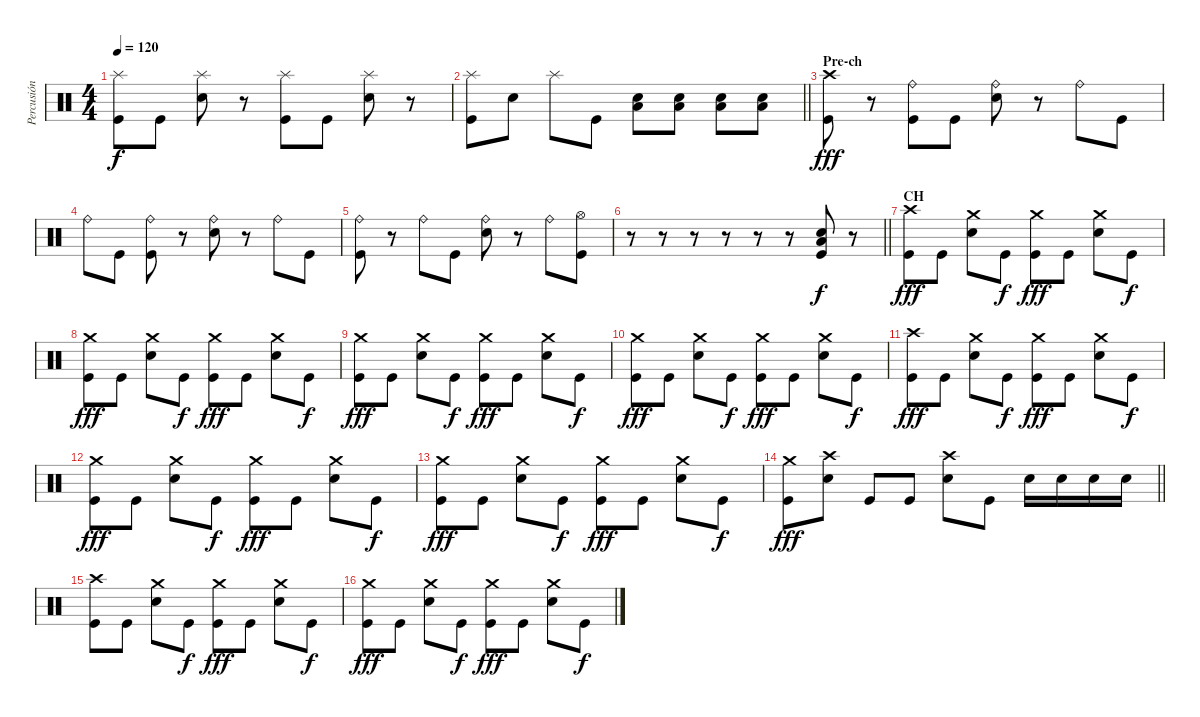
\track ("Percusión" "Percusión") {instrument percussion}
\staff {score}
\articulation defaults
\ts (4 4)
\tempo 120
\clef neutral
\ks c
("Splash (hit)" "Kick (hit)").8{dy f} "Kick (hit)".8 ("Splash (hit)" "Electric Snare (hit)").8 r.8 ("Splash (hit)" "Kick (hit)").8 "Kick (hit)".8 ("Splash (hit)" "Electric Snare (hit)").8 r.8 |
\barLineRight lightlight
("Splash (hit)" "Kick (hit)").8 "Electric Snare (hit)".8 "Splash (hit)".8 "Kick (hit)".8 ("Low Floor Tom (hit)" "Electric Snare (hit)").8 ("Low Floor Tom (hit)" "Electric Snare (hit)").8 ("Low Floor Tom (hit)" "Electric Snare (hit)").8 ("Low Floor Tom (hit)" "Electric Snare (hit)").8 |
\section ("" "Pre-ch")
("Kick (hit)" "Crash high (hit)").8{dy fff} r.8 ("Ride (bell)" "Kick (hit)").8 "Kick (hit)".8 ("Ride (bell)" "Electric Snare (hit)").8 r.8 "Ride (bell)".8 "Kick (hit)".8 |
"Ride (bell)".8 "Kick (hit)".8 ("Ride (bell)" "Kick (hit)").8 r.8 ("Ride (bell)" "Electric Snare (hit)").8 r.8 "Ride (bell)".8 "Kick (hit)".8 |
("Ride (bell)" "Kick (hit)").8 r.8 "Ride (bell)".8 "Kick (hit)".8 ("Ride (bell)" "Electric Snare (hit)").8 r.8 "Ride (bell)".8 ("Kick (hit)" "Hi-Hat (open)").8 |
\barLineRight lightlight
r.8 r.8 r.8 r.8 r.8 r.8 ("Kick (hit)" "Electric Snare (hit)" "Low Floor Tom (hit)").8{dy f} r.8 |
\section ("" "CH")
("Crash high (hit)" "Kick (hit)").8{dy fff} "Kick (hit)".8 ("Crash medium (hit)" "Electric Snare (hit)").8 "Kick (hit)".8{dy f} ("Crash medium (hit)" "Kick (hit)").8{dy fff} "Kick (hit)".8 ("Crash medium (hit)" "Electric Snare (hit)").8 "Kick (hit)".8{dy f} |
("Crash medium (hit)" "Kick (hit)").8{dy fff} "Kick (hit)".8 ("Crash medium (hit)" "Electric Snare (hit)").8 "Kick (hit)".8{dy f} ("Crash medium (hit)" "Kick (hit)").8{dy fff} "Kick (hit)".8 ("Crash medium (hit)" "Electric Snare (hit)").8 "Kick (hit)".8{dy f} |
("Crash medium (hit)" "Kick (hit)").8{dy fff} "Kick (hit)".8 ("Crash medium (hit)" "Electric Snare (hit)").8 "Kick (hit)".8{dy f} ("Crash medium (hit)" "Kick (hit)").8{dy fff} "Kick (hit)".8 ("Crash medium (hit)" "Electric Snare (hit)").8 "Kick (hit)".8{dy f} |
("Crash medium (hit)" "Kick (hit)").8{dy fff} "Kick (hit)".8 ("Crash medium (hit)" "Electric Snare (hit)").8 "Kick (hit)".8{dy f} ("Crash medium (hit)" "Kick (hit)").8{dy fff} "Kick (hit)".8 ("Crash medium (hit)" "Electric Snare (hit)").8 "Kick (hit)".8{dy f} |
("Crash high (hit)" "Kick (hit)").8{dy fff} "Kick (hit)".8 ("Crash medium (hit)" "Electric Snare (hit)").8 "Kick (hit)".8{dy f} ("Crash medium (hit)" "Kick (hit)").8{dy fff} "Kick (hit)".8 ("Crash medium (hit)" "Electric Snare (hit)").8 "Kick (hit)".8{dy f} |
("Crash medium (hit)" "Kick (hit)").8{dy fff} "Kick (hit)".8 ("Crash medium (hit)" "Electric Snare (hit)").8 "Kick (hit)".8{dy f} ("Crash medium (hit)" "Kick (hit)").8{dy fff} "Kick (hit)".8 ("Crash medium (hit)" "Electric Snare (hit)").8 "Kick (hit)".8{dy f} |
("Crash medium (hit)" "Kick (hit)").8{dy fff} "Kick (hit)".8 ("Crash medium (hit)" "Electric Snare (hit)").8 "Kick (hit)".8{dy f} ("Crash medium (hit)" "Kick (hit)").8{dy fff} "Kick (hit)".8 ("Crash medium (hit)" "Electric Snare (hit)").8 "Kick (hit)".8{dy f} |
\barLineRight lightlight
("Crash medium (hit)" "Kick (hit)").8{dy fff} ("Crash high (hit)" "Electric Snare (hit)").8 "Kick (hit)".8 "Kick (hit)".8 ("Crash high (hit)" "Electric Snare (hit)").8 "Kick (hit)".8 "Electric Snare (hit)".16 "Electric Snare (hit)".16 "Electric Snare (hit)".16 "Electric Snare (hit)".16 |
("Crash high (hit)" "Kick (hit)").8 "Kick (hit)".8 ("Crash medium (hit)" "Electric Snare (hit)").8 "Kick (hit)".8{dy f} ("Crash medium (hit)" "Kick (hit)").8{dy fff} "Kick (hit)".8 ("Crash medium (hit)" "Electric Snare (hit)").8 "Kick (hit)".8{dy f} |
("Crash medium (hit)" "Kick (hit)").8{dy fff} "Kick (hit)".8 ("Crash medium (hit)" "Electric Snare (hit)").8 "Kick (hit)".8{dy f} ("Crash medium (hit)" "Kick (hit)").8{dy fff} "Kick (hit)".8 ("Crash medium (hit)" "Electric Snare (hit)").8 "Kick (hit)".8{dy f}
